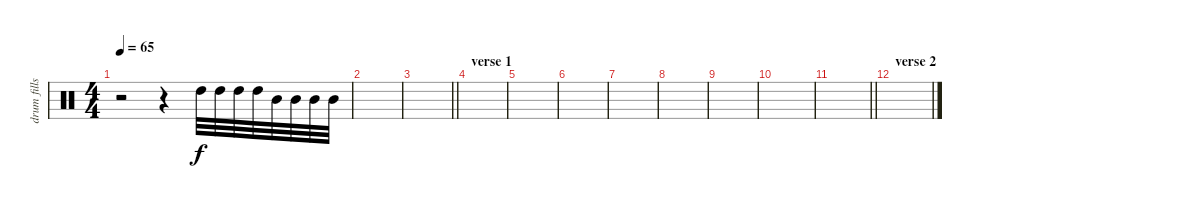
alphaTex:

\track ("drum fills" "drum fills") {instrument percussion}
\staff {score}
\articulation defaults
\ts (4 4)
\tempo 65
\clef neutral
\ks c
r.2{dy f} r.4 "High Tom (hit)".32 "High Tom (hit)".32 "High Tom (hit)".32 "High Tom (hit)".32 "Mid Tom (hit)".32 "Mid Tom (hit)".32 "Mid Tom (hit)".32 "Mid Tom (hit)".32 |
|
\barLineRight lightlight
|
\section ("" "verse 1")
|
|
|
|
|
|
|
\barLineRight lightlight
|
\section ("" "verse 2")
